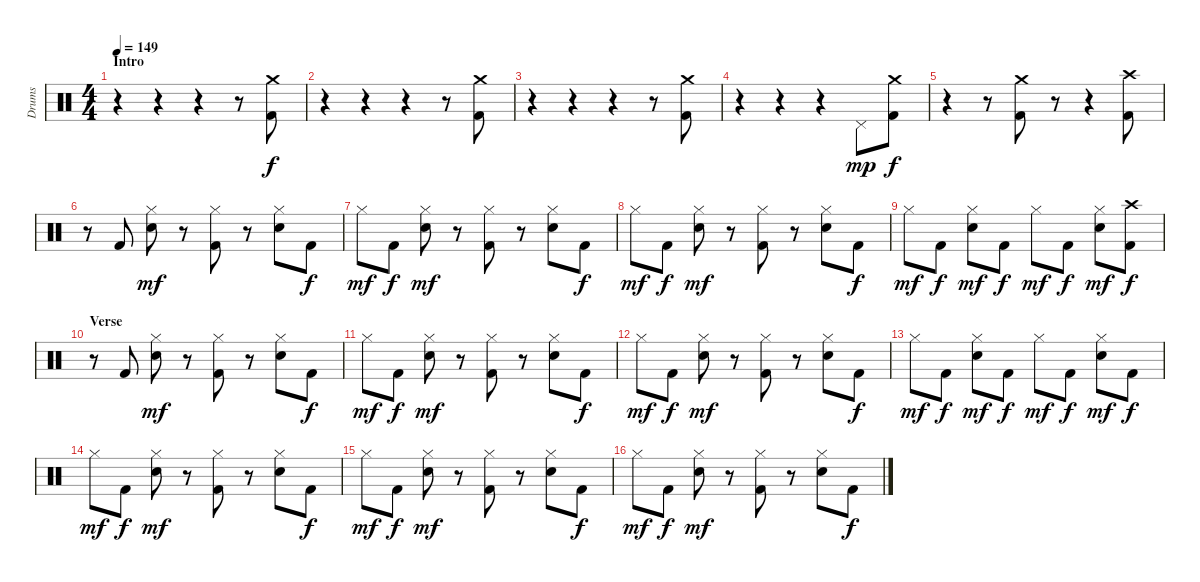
\track ("Drums" "Drums") {instrument percussion}
\staff {score}
\articulation defaults
\ts (4 4)
\section ("" "Intro")
\tempo 149
\clef neutral
\ks c
r.4{dy f} r.4 r.4 r.8 ("Crash medium (hit)" "Kick (hit) 2").8 |
r.4{volume 0} r.4 r.4 r.8 ("Crash medium (hit)" "Kick (hit) 2").8{volume 13} |
r.4{volume 0} r.4 r.4 r.8 ("Crash medium (hit)" "Kick (hit) 2").8{volume 13} |
r.4{volume 0} r.4 r.4 "Pedal Hi-Hat (hit)".8{dy mp volume 13} ("Crash medium (hit)" "Kick (hit) 2").8{dy f} |
r.4{volume 0} r.8 ("Crash medium (hit)" "Kick (hit) 2").8{volume 13} r.8 r.4 ("Crash high (hit)" "Kick (hit) 2").8 |
r.8 "Kick (hit) 2".8 ("Hi-Hat (closed)" "Snare (hit) 2").8{dy mf} r.8 ("Hi-Hat (closed)" "Kick (hit) 2").8 r.8 ("Hi-Hat (closed)" "Snare (hit) 2").8 "Kick (hit) 2".8{dy f} |
"Hi-Hat (closed)".8{dy mf} "Kick (hit) 2".8{dy f} ("Hi-Hat (closed)" "Snare (hit) 2").8{dy mf} r.8 ("Hi-Hat (closed)" "Kick (hit) 2").8 r.8 ("Hi-Hat (closed)" "Snare (hit) 2").8 "Kick (hit) 2".8{dy f} |
"Hi-Hat (closed)".8{dy mf} "Kick (hit) 2".8{dy f} ("Hi-Hat (closed)" "Snare (hit) 2").8{dy mf} r.8 ("Hi-Hat (closed)" "Kick (hit) 2").8 r.8 ("Hi-Hat (closed)" "Snare (hit) 2").8 "Kick (hit) 2".8{dy f} |
"Hi-Hat (closed)".8{dy mf} "Kick (hit) 2".8{dy f} ("Hi-Hat (closed)" "Snare (hit) 2").8{dy mf} "Kick (hit) 2".8{dy f} "Hi-Hat (closed)".8{dy mf} "Kick (hit) 2".8{dy f} ("Hi-Hat (closed)" "Snare (hit) 2").8{dy mf} ("Crash high (hit)" "Kick (hit) 2").8{dy f} |
\section ("" "Verse")
r.8 "Kick (hit) 2".8 ("Hi-Hat (closed)" "Snare (hit) 2").8{dy mf} r.8 ("Hi-Hat (closed)" "Kick (hit) 2").8 r.8 ("Hi-Hat (closed)" "Snare (hit) 2").8 "Kick (hit) 2".8{dy f} |
"Hi-Hat (closed)".8{dy mf} "Kick (hit) 2".8{dy f} ("Hi-Hat (closed)" "Snare (hit) 2").8{dy mf} r.8 ("Hi-Hat (closed)" "Kick (hit) 2").8 r.8 ("Hi-Hat (closed)" "Snare (hit) 2").8 "Kick (hit) 2".8{dy f} |
"Hi-Hat (closed)".8{dy mf} "Kick (hit) 2".8{dy f} ("Hi-Hat (closed)" "Snare (hit) 2").8{dy mf} r.8 ("Hi-Hat (closed)" "Kick (hit) 2").8 r.8 ("Hi-Hat (closed)" "Snare (hit) 2").8 "Kick (hit) 2".8{dy f} |
"Hi-Hat (closed)".8{dy mf} "Kick (hit) 2".8{dy f} ("Hi-Hat (closed)" "Snare (hit) 2").8{dy mf} "Kick (hit) 2".8{dy f} "Hi-Hat (closed)".8{dy mf} "Kick (hit) 2".8{dy f} ("Hi-Hat (closed)" "Snare (hit) 2").8{dy mf} "Kick (hit) 2".8{dy f} |
"Hi-Hat (closed)".8{dy mf} "Kick (hit) 2".8{dy f} ("Hi-Hat (closed)" "Snare (hit) 2").8{dy mf} r.8 ("Hi-Hat (closed)" "Kick (hit) 2").8 r.8 ("Hi-Hat (closed)" "Snare (hit) 2").8 "Kick (hit) 2".8{dy f} |
"Hi-Hat (closed)".8{dy mf} "Kick (hit) 2".8{dy f} ("Hi-Hat (closed)" "Snare (hit) 2").8{dy mf} r.8 ("Hi-Hat (closed)" "Kick (hit) 2").8 r.8 ("Hi-Hat (closed)" "Snare (hit) 2").8 "Kick (hit) 2".8{dy f} |
"Hi-Hat (closed)".8{dy mf} "Kick (hit) 2".8{dy f} ("Hi-Hat (closed)" "Snare (hit) 2").8{dy mf} r.8 ("Hi-Hat (closed)" "Kick (hit) 2").8 r.8 ("Hi-Hat (closed)" "Snare (hit) 2").8 "Kick (hit) 2".8{dy f}
